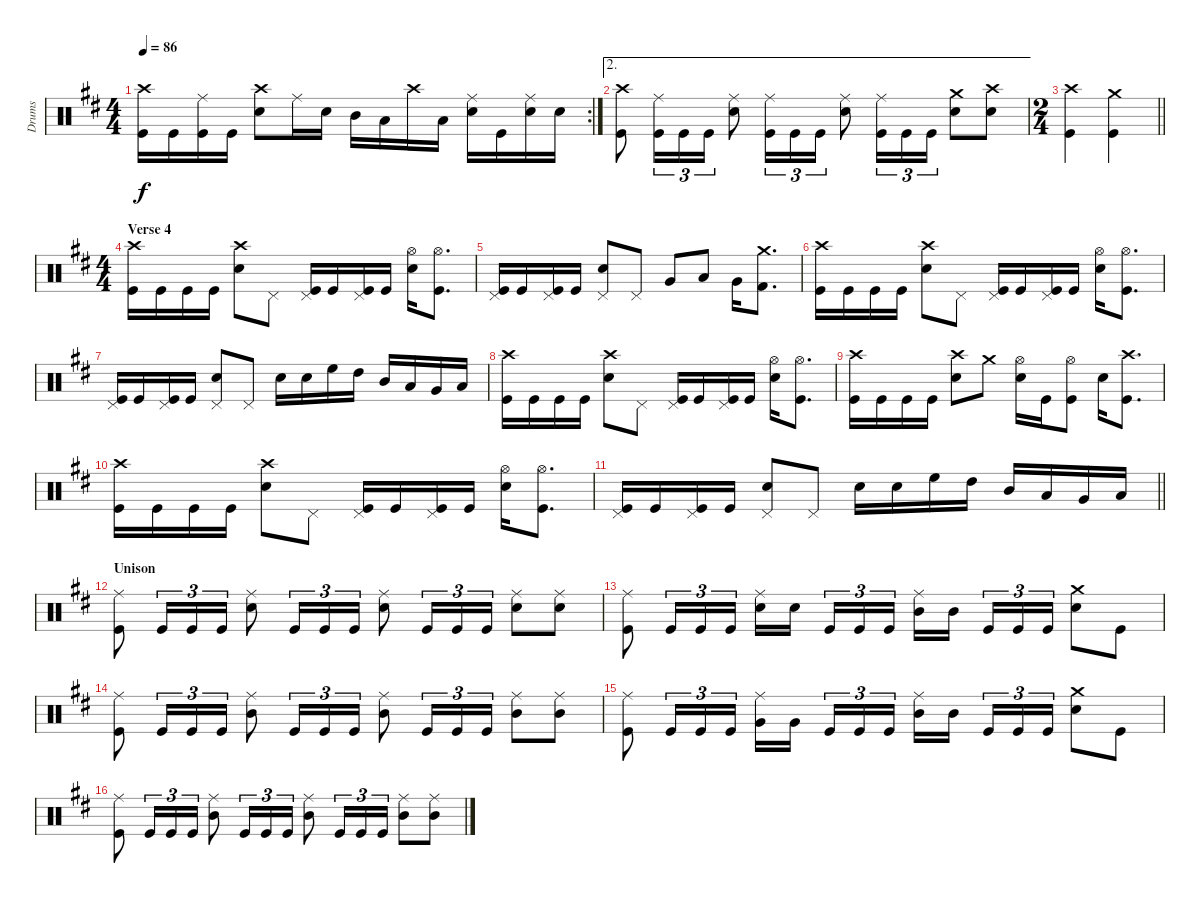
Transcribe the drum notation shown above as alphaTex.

\track ("Drums" "Drums") {instrument percussion}
\staff {score}
\articulation defaults
\rc 2
\ts (4 4)
\tempo 86
\clef neutral
\ks bminor
("Crash high (hit)" "Kick (hit)").16{dy f} "Kick (hit)".16 ("Ride (middle)" "Kick (hit)").16 "Kick (hit)".16 ("Crash high (hit)" "Snare (hit) 2").8 "Ride (middle)".16 "Snare (hit) 2".16 "Mid Tom (hit)".16 "Low Tom (hit)".16 "Crash high (hit)".16 "Low Floor Tom (hit)".16 ("Ride (middle)" "Snare (hit) 2").16 "Kick (hit)".16 ("Ride (middle)" "Snare (hit) 2").16 "Snare (hit) 2".16 |
\ae 2
("Crash high (hit)" "Kick (hit)").8 ("Ride (middle)" "Kick (hit)").16{tu (3 2)} "Kick (hit)".16{tu (3 2)} "Kick (hit)".16{tu (3 2)} ("Ride (middle)" "Snare (hit) 2").8 ("Ride (middle)" "Kick (hit)").16{tu (3 2)} "Kick (hit)".16{tu (3 2)} "Kick (hit)".16{tu (3 2)} ("Ride (middle)" "Snare (hit) 2").8 ("Ride (middle)" "Kick (hit)").16{tu (3 2)} "Kick (hit)".16{tu (3 2)} "Kick (hit)".16{tu (3 2)} ("Crash medium (hit)" "Snare (hit) 2").8 ("Crash high (hit)" "Snare (hit) 2").8 |
\ts (2 4)
\barLineRight lightlight
("Crash high (hit)" "Kick (hit)").4 ("Crash medium (hit)" "Kick (hit)").4 |
\ts (4 4)
\section ("" "Verse 4")
("Crash high (hit)" "Kick (hit)").16 "Kick (hit)".16 "Kick (hit)".16 "Kick (hit)".16 ("Crash high (hit)" "Snare (hit) 2").8 "Pedal Hi-Hat (hit)".8 ("Pedal Hi-Hat (hit)" "Kick (hit)").16 "Kick (hit)".16 ("Pedal Hi-Hat (hit)" "Kick (hit)").16 "Kick (hit)".16 ("Hi-Hat (open)" "Snare (hit) 2").16 ("Hi-Hat (open)" "Kick (hit)").8{d} |
("Pedal Hi-Hat (hit)" "Kick (hit)").16 "Kick (hit)".16 ("Pedal Hi-Hat (hit)" "Kick (hit)").16 "Kick (hit)".16 ("Pedal Hi-Hat (hit)" "Snare (hit) 2").8 "Pedal Hi-Hat (hit)".8 "Very Low Tom (hit)".8 "Low Tom (hit)".8 "Very Low Tom (hit)".16 ("Crash medium (hit)" "Kick (hit) 2").8{d} |
("Crash high (hit)" "Kick (hit)").16 "Kick (hit)".16 "Kick (hit)".16 "Kick (hit)".16 ("Crash high (hit)" "Snare (hit) 2").8 "Pedal Hi-Hat (hit)".8 ("Pedal Hi-Hat (hit)" "Kick (hit)").16 "Kick (hit)".16 ("Pedal Hi-Hat (hit)" "Kick (hit)").16 "Kick (hit)".16 ("Hi-Hat (open)" "Snare (hit) 2").16 ("Hi-Hat (open)" "Kick (hit)").8{d} |
("Pedal Hi-Hat (hit)" "Kick (hit)").16 "Kick (hit)".16 ("Pedal Hi-Hat (hit)" "Kick (hit)").16 "Kick (hit)".16 ("Pedal Hi-Hat (hit)" "Snare (hit) 2").8 "Pedal Hi-Hat (hit)".8 "Snare (hit) 2".16 "Snare (hit) 2".16 "High Floor Tom (hit)".16 "High Tom (hit)".16 "Mid Tom (hit)".16 "Low Tom (hit)".16 "Very Low Tom (hit)".16 "Low Floor Tom (hit)".16 |
("Crash high (hit)" "Kick (hit)").16 "Kick (hit)".16 "Kick (hit)".16 "Kick (hit)".16 ("Crash high (hit)" "Snare (hit) 2").8 "Pedal Hi-Hat (hit)".8 ("Pedal Hi-Hat (hit)" "Kick (hit)").16 "Kick (hit)".16 ("Pedal Hi-Hat (hit)" "Kick (hit)").16 "Kick (hit)".16 ("Hi-Hat (open)" "Snare (hit) 2").16 ("Hi-Hat (open)" "Kick (hit)").8{d} |
("Crash high (hit)" "Kick (hit)").16 "Kick (hit)".16 "Kick (hit)".16 "Kick (hit)".16 ("Crash high (hit)" "Snare (hit) 2").8 "Crash medium (hit)".8 ("Hi-Hat (open)" "Snare (hit) 2").16 "Kick (hit)".16 ("Hi-Hat (open)" "Kick (hit)").8 "Snare (hit) 2".16 ("Crash high (hit)" "Kick (hit)").8{d} |
("Crash high (hit)" "Kick (hit)").16 "Kick (hit)".16 "Kick (hit)".16 "Kick (hit)".16 ("Crash high (hit)" "Snare (hit) 2").8 "Pedal Hi-Hat (hit)".8 ("Pedal Hi-Hat (hit)" "Kick (hit)").16 "Kick (hit)".16 ("Pedal Hi-Hat (hit)" "Kick (hit)").16 "Kick (hit)".16 ("Hi-Hat (open)" "Snare (hit) 2").16 ("Hi-Hat (open)" "Kick (hit)").8{d} |
\barLineRight lightlight
("Pedal Hi-Hat (hit)" "Kick (hit)").16 "Kick (hit)".16 ("Pedal Hi-Hat (hit)" "Kick (hit)").16 "Kick (hit)".16 ("Pedal Hi-Hat (hit)" "Snare (hit) 2").8 "Pedal Hi-Hat (hit)".8 "Snare (hit) 2".16 "Snare (hit) 2".16 "High Floor Tom (hit)".16 "High Tom (hit)".16 "Mid Tom (hit)".16 "Low Tom (hit)".16 "Very Low Tom (hit)".16 "Low Floor Tom (hit)".16 |
\section ("" "Unison")
("Ride (middle)" "Kick (hit)").8 "Kick (hit)".16{tu (3 2)} "Kick (hit)".16{tu (3 2)} "Kick (hit)".16{tu (3 2)} ("Ride (middle)" "Snare (hit) 2").8 "Kick (hit)".16{tu (3 2)} "Kick (hit)".16{tu (3 2)} "Kick (hit)".16{tu (3 2)} ("Ride (middle)" "Snare (hit) 2").8 "Kick (hit)".16{tu (3 2)} "Kick (hit)".16{tu (3 2)} "Kick (hit)".16{tu (3 2)} ("Ride (middle)" "Snare (hit) 2").8 ("Ride (middle)" "Snare (hit) 2").8 |
("Ride (middle)" "Kick (hit)").8 "Kick (hit)".16{tu (3 2)} "Kick (hit)".16{tu (3 2)} "Kick (hit)".16{tu (3 2)} ("Ride (middle)" "Snare (hit) 2").16 "Snare (hit) 2".16{beam splitsecondary} "Kick (hit)".16{tu (3 2)} "Kick (hit)".16{tu (3 2)} "Kick (hit)".16{tu (3 2)} ("Ride (middle)" "Mid Tom (hit)").16 "Mid Tom (hit)".16{beam splitsecondary} "Kick (hit)".16{tu (3 2)} "Kick (hit)".16{tu (3 2)} "Kick (hit)".16{tu (3 2)} ("Crash medium (hit)" "Snare (hit) 2").8 "Kick (hit)".8 |
("Ride (middle)" "Kick (hit)").8 "Kick (hit)".16{tu (3 2)} "Kick (hit)".16{tu (3 2)} "Kick (hit)".16{tu (3 2)} ("Ride (middle)" "Mid Tom (hit)").8 "Kick (hit)".16{tu (3 2)} "Kick (hit)".16{tu (3 2)} "Kick (hit)".16{tu (3 2)} ("Ride (middle)" "Mid Tom (hit)").8 "Kick (hit)".16{tu (3 2)} "Kick (hit)".16{tu (3 2)} "Kick (hit)".16{tu (3 2)} ("Ride (middle)" "Mid Tom (hit)").8 ("Ride (middle)" "Mid Tom (hit)").8 |
("Ride (middle)" "Kick (hit)").8 "Kick (hit)".16{tu (3 2)} "Kick (hit)".16{tu (3 2)} "Kick (hit)".16{tu (3 2)} ("Ride (middle)" "Very Low Tom (hit)").16 "Very Low Tom (hit)".16{beam splitsecondary} "Kick (hit)".16{tu (3 2)} "Kick (hit)".16{tu (3 2)} "Kick (hit)".16{tu (3 2)} ("Ride (middle)" "Mid Tom (hit)").16 "Mid Tom (hit)".16{beam splitsecondary} "Kick (hit)".16{tu (3 2)} "Kick (hit)".16{tu (3 2)} "Kick (hit)".16{tu (3 2)} ("Crash medium (hit)" "Snare (hit) 2").8 "Kick (hit)".8 |
("Ride (middle)" "Kick (hit)").8 "Kick (hit)".16{tu (3 2)} "Kick (hit)".16{tu (3 2)} "Kick (hit)".16{tu (3 2)} ("Ride (middle)" "Mid Tom (hit)").8 "Kick (hit)".16{tu (3 2)} "Kick (hit)".16{tu (3 2)} "Kick (hit)".16{tu (3 2)} ("Ride (middle)" "Mid Tom (hit)").8 "Kick (hit)".16{tu (3 2)} "Kick (hit)".16{tu (3 2)} "Kick (hit)".16{tu (3 2)} ("Ride (middle)" "Mid Tom (hit)").8 ("Ride (middle)" "Mid Tom (hit)").8
